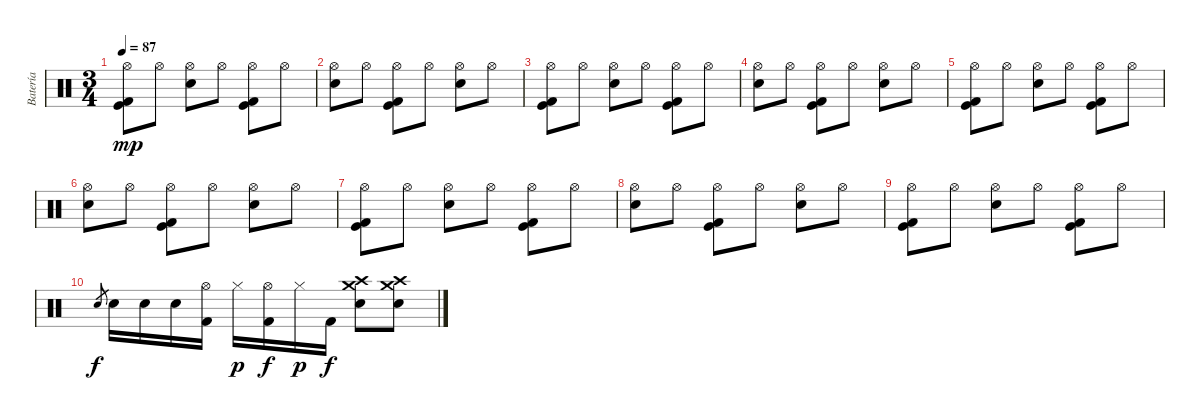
\track ("Batería" "Batería") {instrument percussion}
\staff {score}
\articulation defaults
\ts (3 4)
\tempo 87
\clef neutral
\ks c
("Hi-Hat (open)" "Kick (hit)" "Kick (hit) 2").8{dy mp} "Hi-Hat (open)".8 ("Hi-Hat (open)" "Electric Snare (hit)").8 "Hi-Hat (open)".8 ("Hi-Hat (open)" "Kick (hit)" "Kick (hit) 2").8 "Hi-Hat (open)".8 |
("Hi-Hat (open)" "Electric Snare (hit)").8 "Hi-Hat (open)".8 ("Hi-Hat (open)" "Kick (hit)" "Kick (hit) 2").8 "Hi-Hat (open)".8 ("Hi-Hat (open)" "Electric Snare (hit)").8 "Hi-Hat (open)".8 |
("Hi-Hat (open)" "Kick (hit)" "Kick (hit) 2").8 "Hi-Hat (open)".8 ("Hi-Hat (open)" "Electric Snare (hit)").8 "Hi-Hat (open)".8 ("Hi-Hat (open)" "Kick (hit)" "Kick (hit) 2").8 "Hi-Hat (open)".8 |
("Hi-Hat (open)" "Electric Snare (hit)").8 "Hi-Hat (open)".8 ("Hi-Hat (open)" "Kick (hit)" "Kick (hit) 2").8 "Hi-Hat (open)".8 ("Hi-Hat (open)" "Electric Snare (hit)").8 "Hi-Hat (open)".8 |
("Hi-Hat (open)" "Kick (hit)" "Kick (hit) 2").8 "Hi-Hat (open)".8 ("Hi-Hat (open)" "Electric Snare (hit)").8 "Hi-Hat (open)".8 ("Hi-Hat (open)" "Kick (hit)" "Kick (hit) 2").8 "Hi-Hat (open)".8 |
("Hi-Hat (open)" "Electric Snare (hit)").8 "Hi-Hat (open)".8 ("Hi-Hat (open)" "Kick (hit)" "Kick (hit) 2").8 "Hi-Hat (open)".8 ("Hi-Hat (open)" "Electric Snare (hit)").8 "Hi-Hat (open)".8 |
("Hi-Hat (open)" "Kick (hit)" "Kick (hit) 2").8 "Hi-Hat (open)".8 ("Hi-Hat (open)" "Electric Snare (hit)").8 "Hi-Hat (open)".8 ("Hi-Hat (open)" "Kick (hit)" "Kick (hit) 2").8 "Hi-Hat (open)".8 |
("Hi-Hat (open)" "Electric Snare (hit)").8 "Hi-Hat (open)".8 ("Hi-Hat (open)" "Kick (hit)" "Kick (hit) 2").8 "Hi-Hat (open)".8 ("Hi-Hat (open)" "Electric Snare (hit)").8 "Hi-Hat (open)".8 |
("Hi-Hat (open)" "Kick (hit)" "Kick (hit) 2").8 "Hi-Hat (open)".8 ("Hi-Hat (open)" "Electric Snare (hit)").8 "Hi-Hat (open)".8 ("Hi-Hat (open)" "Kick (hit)" "Kick (hit) 2").8 "Hi-Hat (open)".8 |
"Electric Snare (hit)".8{gr dy f} "Electric Snare (hit)".16 "Electric Snare (hit)".16 "Electric Snare (hit)".16 ("Hi-Hat (open)" "Kick (hit) 2").16 "Hi-Hat (closed)".16{dy p} ("Hi-Hat (open)" "Kick (hit) 2").16{dy f} "Hi-Hat (closed)".16{dy p} "Kick (hit) 2".16{dy f} ("Crash high (hit)" "Crash medium (hit)" "Electric Snare (hit)").8 ("Crash high (hit)" "Crash medium (hit)" "Electric Snare (hit)").8
